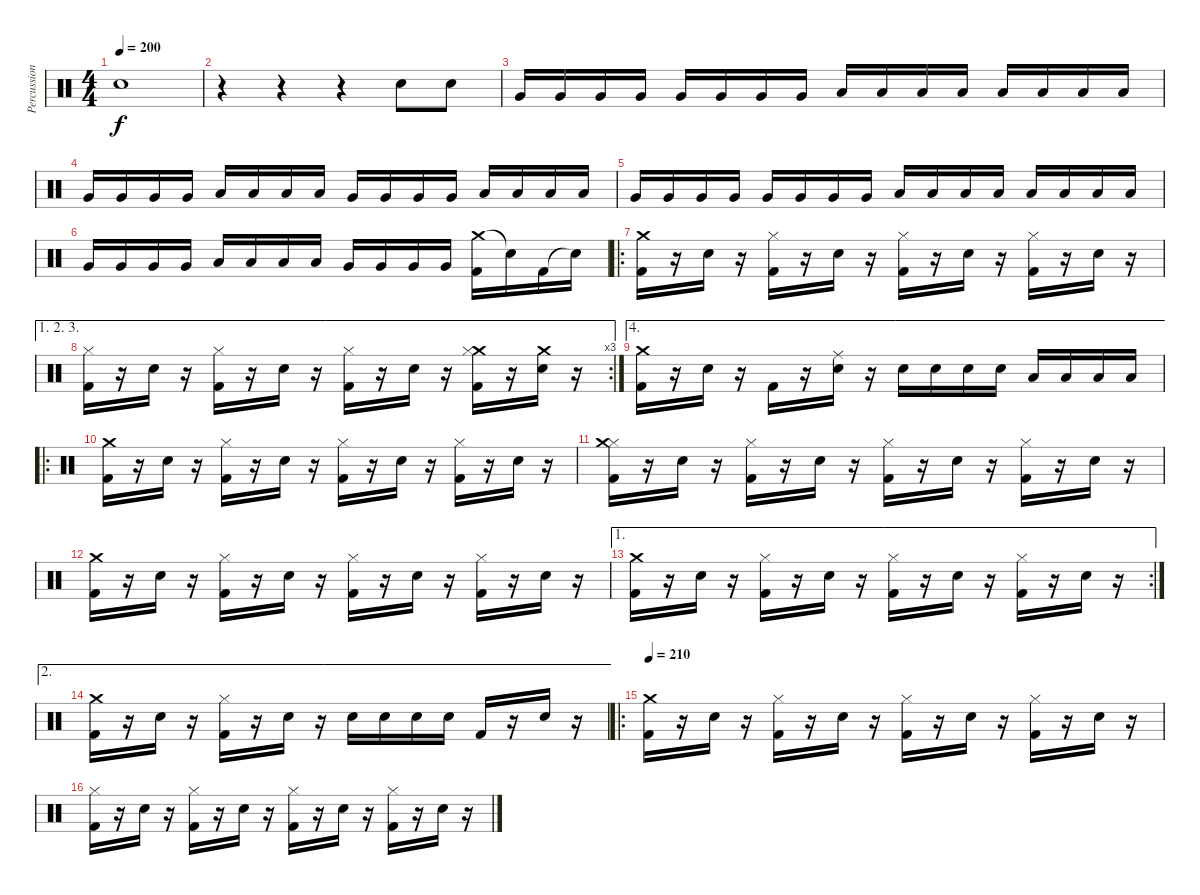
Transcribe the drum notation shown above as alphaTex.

\track ("Percussion" "Percussion") {instrument percussion}
\staff {score}
\articulation defaults
\ts (4 4)
\tempo 200
\clef neutral
\ks c "Snare (hit) 2".1{dy f}
|
r.4 r.4 r.4 "Snare (hit) 2".8 "Snare (hit) 2".8 |
"Very Low Tom (hit)".16 "Very Low Tom (hit)".16 "Very Low Tom (hit)".16 "Very Low Tom (hit)".16 "Very Low Tom (hit)".16 "Very Low Tom (hit)".16 "Very Low Tom (hit)".16 "Very Low Tom (hit)".16 "Low Tom (hit)".16 "Low Tom (hit)".16 "Low Tom (hit)".16 "Low Tom (hit)".16 "Low Tom (hit)".16 "Low Tom (hit)".16 "Low Tom (hit)".16 "Low Tom (hit)".16 |
"Very Low Tom (hit)".16 "Very Low Tom (hit)".16 "Very Low Tom (hit)".16 "Very Low Tom (hit)".16 "Low Floor Tom (hit)".16 "Low Floor Tom (hit)".16 "Low Floor Tom (hit)".16 "Low Floor Tom (hit)".16 "Very Low Tom (hit)".16 "Very Low Tom (hit)".16 "Very Low Tom (hit)".16 "Very Low Tom (hit)".16 "Low Tom (hit)".16 "Low Tom (hit)".16 "Low Tom (hit)".16 "Low Tom (hit)".16 |
"Very Low Tom (hit)".16 "Very Low Tom (hit)".16 "Very Low Tom (hit)".16 "Very Low Tom (hit)".16 "Very Low Tom (hit)".16 "Very Low Tom (hit)".16 "Very Low Tom (hit)".16 "Very Low Tom (hit)".16 "Low Tom (hit)".16 "Low Tom (hit)".16 "Low Tom (hit)".16 "Low Tom (hit)".16 "Low Tom (hit)".16 "Low Tom (hit)".16 "Low Tom (hit)".16 "Low Tom (hit)".16 |
"Very Low Tom (hit)".16 "Very Low Tom (hit)".16 "Very Low Tom (hit)".16 "Very Low Tom (hit)".16 "Low Floor Tom (hit)".16 "Low Floor Tom (hit)".16 "Low Floor Tom (hit)".16 "Low Floor Tom (hit)".16 "Very Low Tom (hit)".16 "Very Low Tom (hit)".16 "Very Low Tom (hit)".16 "Very Low Tom (hit)".16 ("Crash medium (hit)" "Kick (hit) 2").16 "Snare (hit)"{t}.16 "Kick (hit) 2".16 "Snare (hit)"{t}.16 |
\ro
("Crash medium (hit)" "Kick (hit) 2").16 r.16 "Snare (hit) 2".16 r.16 ("Hi-Hat (closed)" "Kick (hit) 2").16 r.16 "Snare (hit) 2".16 r.16 ("Hi-Hat (closed)" "Kick (hit) 2").16 r.16 "Snare (hit) 2".16 r.16 ("Hi-Hat (closed)" "Kick (hit) 2").16 r.16 "Snare (hit) 2".16 r.16 |
\ae (1 2 3)
\rc 3
("Hi-Hat (closed)" "Kick (hit) 2").16 r.16 "Snare (hit) 2".16 r.16 ("Hi-Hat (closed)" "Kick (hit) 2").16 r.16 "Snare (hit) 2".16 r.16 ("Hi-Hat (closed)" "Kick (hit) 2").16 r.16 "Snare (hit) 2".16 r.16 ("Crash medium (hit)" "Hi-Hat (closed)" "Kick (hit) 2").16 r.16 ("Crash medium (hit)" "Snare (hit) 2").16 r.16 |
\ae 4
("Crash medium (hit)" "Kick (hit) 2").16 r.16 "Snare (hit) 2".16 r.16 "Kick (hit) 2".16 r.16 ("Ride (middle)" "Snare (hit) 2").16 r.16 "Snare (hit) 2".16 "Snare (hit) 2".16 "Snare (hit) 2".16 "Snare (hit) 2".16 "Low Tom (hit)".16 "Low Tom (hit)".16 "Low Tom (hit)".16 "Low Tom (hit)".16 |
\ro
("Crash medium (hit)" "Kick (hit) 2").16 r.16 "Snare (hit) 2".16 r.16 ("Hi-Hat (closed)" "Kick (hit) 2").16 r.16 "Snare (hit) 2".16 r.16 ("Hi-Hat (closed)" "Kick (hit) 2").16 r.16 "Snare (hit) 2".16 r.16 ("Hi-Hat (closed)" "Kick (hit) 2").16 r.16 "Snare (hit) 2".16 r.16 |
("Hi-Hat (closed)" "Crash medium (hit)" "Kick (hit) 2").16 r.16 "Snare (hit) 2".16 r.16 ("Hi-Hat (closed)" "Kick (hit) 2").16 r.16 "Snare (hit) 2".16 r.16 ("Hi-Hat (closed)" "Kick (hit) 2").16 r.16 "Snare (hit) 2".16 r.16 ("Hi-Hat (closed)" "Kick (hit) 2").16 r.16 "Snare (hit) 2".16 r.16 |
("Crash medium (hit)" "Kick (hit) 2").16 r.16 "Snare (hit) 2".16 r.16 ("Hi-Hat (closed)" "Kick (hit) 2").16 r.16 "Snare (hit) 2".16 r.16 ("Hi-Hat (closed)" "Kick (hit) 2").16 r.16 "Snare (hit) 2".16 r.16 ("Hi-Hat (closed)" "Kick (hit) 2").16 r.16 "Snare (hit) 2".16 r.16 |
\ae 1
\rc 2
("Crash medium (hit)" "Kick (hit) 2").16 r.16 "Snare (hit) 2".16 r.16 ("Hi-Hat (closed)" "Kick (hit) 2").16 r.16 "Snare (hit) 2".16 r.16 ("Hi-Hat (closed)" "Kick (hit) 2").16 r.16 "Snare (hit) 2".16 r.16 ("Hi-Hat (closed)" "Kick (hit) 2").16 r.16 "Snare (hit) 2".16 r.16 |
\ae 2
("Crash medium (hit)" "Kick (hit) 2").16 r.16 "Snare (hit) 2".16 r.16 ("Hi-Hat (closed)" "Kick (hit) 2").16 r.16 "Snare (hit) 2".16 r.16 "Snare (hit) 2".16 "Snare (hit) 2".16 "Snare (hit) 2".16 "Snare (hit) 2".16 "Kick (hit) 2".16 r.16 "Snare (hit) 2".16 r.16 |
\ro
\tempo 210
("Crash medium (hit)" "Kick (hit) 2").16 r.16 "Snare (hit) 2".16 r.16 ("Hi-Hat (closed)" "Kick (hit) 2").16 r.16 "Snare (hit) 2".16 r.16 ("Hi-Hat (closed)" "Kick (hit) 2").16 r.16 "Snare (hit) 2".16 r.16 ("Hi-Hat (closed)" "Kick (hit) 2").16 r.16 "Snare (hit) 2".16 r.16 |
("Hi-Hat (closed)" "Kick (hit) 2").16 r.16 "Snare (hit) 2".16 r.16 ("Hi-Hat (closed)" "Kick (hit) 2").16 r.16 "Snare (hit) 2".16 r.16 ("Hi-Hat (closed)" "Kick (hit) 2").16 r.16 "Snare (hit) 2".16 r.16 ("Hi-Hat (closed)" "Kick (hit) 2").16 r.16 "Snare (hit) 2".16 r.16
